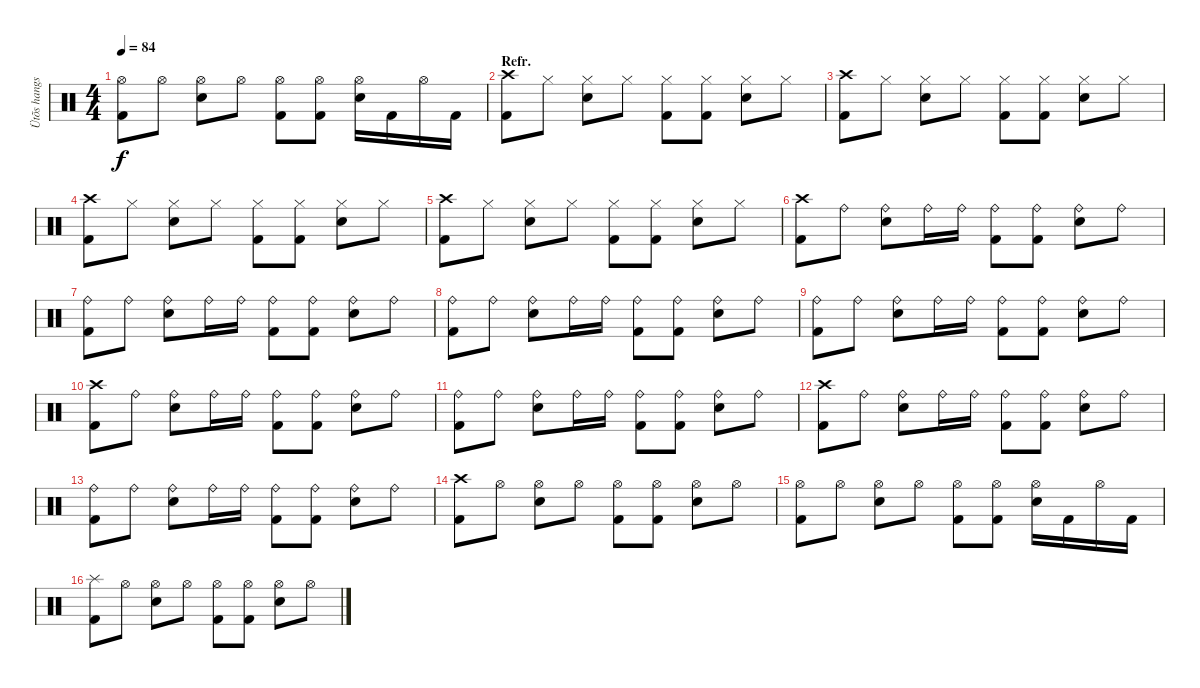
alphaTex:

\track ("Ütõs hangszer" "Ütõs hangs") {instrument percussion}
\staff {score}
\articulation defaults
\ts (4 4)
\tempo 84
\clef neutral
\ks c
("Hi-Hat (open)" "Kick (hit) 2").8{dy f} "Hi-Hat (open)".8 ("Hi-Hat (open)" "Snare (hit) 2").8 "Hi-Hat (open)".8 ("Hi-Hat (open)" "Kick (hit) 2").8 ("Hi-Hat (open)" "Kick (hit) 2").8 ("Hi-Hat (open)" "Snare (hit) 2").16 "Kick (hit) 2".16 "Hi-Hat (open)".16 "Kick (hit) 2".16 |
\section ("" "Refr.")
("Crash high (hit)" "Kick (hit) 2").8 "Hi-Hat (closed)".8 ("Hi-Hat (closed)" "Snare (hit) 2").8 "Hi-Hat (closed)".8 ("Hi-Hat (closed)" "Kick (hit) 2").8 ("Hi-Hat (closed)" "Kick (hit) 2").8 ("Hi-Hat (closed)" "Snare (hit) 2").8 "Hi-Hat (closed)".8 |
("Crash high (hit)" "Kick (hit) 2").8 "Hi-Hat (closed)".8 ("Hi-Hat (closed)" "Snare (hit) 2").8 "Hi-Hat (closed)".8 ("Hi-Hat (closed)" "Kick (hit) 2").8 ("Hi-Hat (closed)" "Kick (hit) 2").8 ("Hi-Hat (closed)" "Snare (hit) 2").8 "Hi-Hat (closed)".8 |
("Crash high (hit)" "Kick (hit) 2").8 "Hi-Hat (closed)".8 ("Hi-Hat (closed)" "Snare (hit) 2").8 "Hi-Hat (closed)".8 ("Hi-Hat (closed)" "Kick (hit) 2").8 ("Hi-Hat (closed)" "Kick (hit) 2").8 ("Hi-Hat (closed)" "Snare (hit) 2").8 "Hi-Hat (closed)".8 |
("Crash high (hit)" "Kick (hit) 2").8 "Hi-Hat (closed)".8 ("Hi-Hat (closed)" "Snare (hit) 2").8 "Hi-Hat (closed)".8 ("Hi-Hat (closed)" "Kick (hit) 2").8 ("Hi-Hat (closed)" "Kick (hit) 2").8 ("Hi-Hat (closed)" "Snare (hit) 2").8 "Hi-Hat (closed)".8 |
("Crash high (hit)" "Kick (hit) 2").8 "Ride (bell)".8 ("Ride (bell)" "Snare (hit) 2").8 "Ride (bell)".16 "Ride (bell)".16 ("Ride (bell)" "Kick (hit) 2").8 ("Ride (bell)" "Kick (hit) 2").8 ("Ride (bell)" "Snare (hit) 2").8 "Ride (bell)".8 |
("Ride (bell)" "Kick (hit) 2").8 "Ride (bell)".8 ("Ride (bell)" "Snare (hit) 2").8 "Ride (bell)".16 "Ride (bell)".16 ("Ride (bell)" "Kick (hit) 2").8 ("Ride (bell)" "Kick (hit) 2").8 ("Ride (bell)" "Snare (hit) 2").8 "Ride (bell)".8 |
("Ride (bell)" "Kick (hit) 2").8 "Ride (bell)".8 ("Ride (bell)" "Snare (hit) 2").8 "Ride (bell)".16 "Ride (bell)".16 ("Ride (bell)" "Kick (hit) 2").8 ("Ride (bell)" "Kick (hit) 2").8 ("Ride (bell)" "Snare (hit) 2").8 "Ride (bell)".8 |
("Ride (bell)" "Kick (hit) 2").8 "Ride (bell)".8 ("Ride (bell)" "Snare (hit) 2").8 "Ride (bell)".16 "Ride (bell)".16 ("Ride (bell)" "Kick (hit) 2").8 ("Ride (bell)" "Kick (hit) 2").8 ("Ride (bell)" "Snare (hit) 2").8 "Ride (bell)".8 |
("Crash high (hit)" "Kick (hit) 2").8 "Ride (bell)".8 ("Ride (bell)" "Snare (hit) 2").8 "Ride (bell)".16 "Ride (bell)".16 ("Ride (bell)" "Kick (hit) 2").8 ("Ride (bell)" "Kick (hit) 2").8 ("Ride (bell)" "Snare (hit) 2").8 "Ride (bell)".8 |
("Ride (bell)" "Kick (hit) 2").8 "Ride (bell)".8 ("Ride (bell)" "Snare (hit) 2").8 "Ride (bell)".16 "Ride (bell)".16 ("Ride (bell)" "Kick (hit) 2").8 ("Ride (bell)" "Kick (hit) 2").8 ("Ride (bell)" "Snare (hit) 2").8 "Ride (bell)".8 |
("Crash high (hit)" "Kick (hit) 2").8 "Ride (bell)".8 ("Ride (bell)" "Snare (hit) 2").8 "Ride (bell)".16 "Ride (bell)".16 ("Ride (bell)" "Kick (hit) 2").8 ("Ride (bell)" "Kick (hit) 2").8 ("Ride (bell)" "Snare (hit) 2").8 "Ride (bell)".8 |
("Ride (bell)" "Kick (hit) 2").8 "Ride (bell)".8 ("Ride (bell)" "Snare (hit) 2").8 "Ride (bell)".16 "Ride (bell)".16 ("Ride (bell)" "Kick (hit) 2").8 ("Ride (bell)" "Kick (hit) 2").8 ("Ride (bell)" "Snare (hit) 2").8 "Ride (bell)".8 |
("Crash high (hit)" "Kick (hit) 2").8 "Hi-Hat (open)".8 ("Hi-Hat (open)" "Snare (hit) 2").8 "Hi-Hat (open)".8 ("Hi-Hat (open)" "Kick (hit) 2").8 ("Hi-Hat (open)" "Kick (hit) 2").8 ("Hi-Hat (open)" "Snare (hit) 2").8 "Hi-Hat (open)".8 |
("Hi-Hat (open)" "Kick (hit) 2").8 "Hi-Hat (open)".8 ("Hi-Hat (open)" "Snare (hit) 2").8 "Hi-Hat (open)".8 ("Hi-Hat (open)" "Kick (hit) 2").8 ("Hi-Hat (open)" "Kick (hit) 2").8 ("Hi-Hat (open)" "Snare (hit) 2").16 "Kick (hit) 2".16 "Hi-Hat (open)".16 "Kick (hit) 2".16 |
("Splash (hit)" "Kick (hit) 2").8 "Hi-Hat (open)".8 ("Hi-Hat (open)" "Snare (hit) 2").8 "Hi-Hat (open)".8 ("Hi-Hat (open)" "Kick (hit) 2").8 ("Hi-Hat (open)" "Kick (hit) 2").8 ("Hi-Hat (open)" "Snare (hit) 2").8 "Hi-Hat (open)".8
